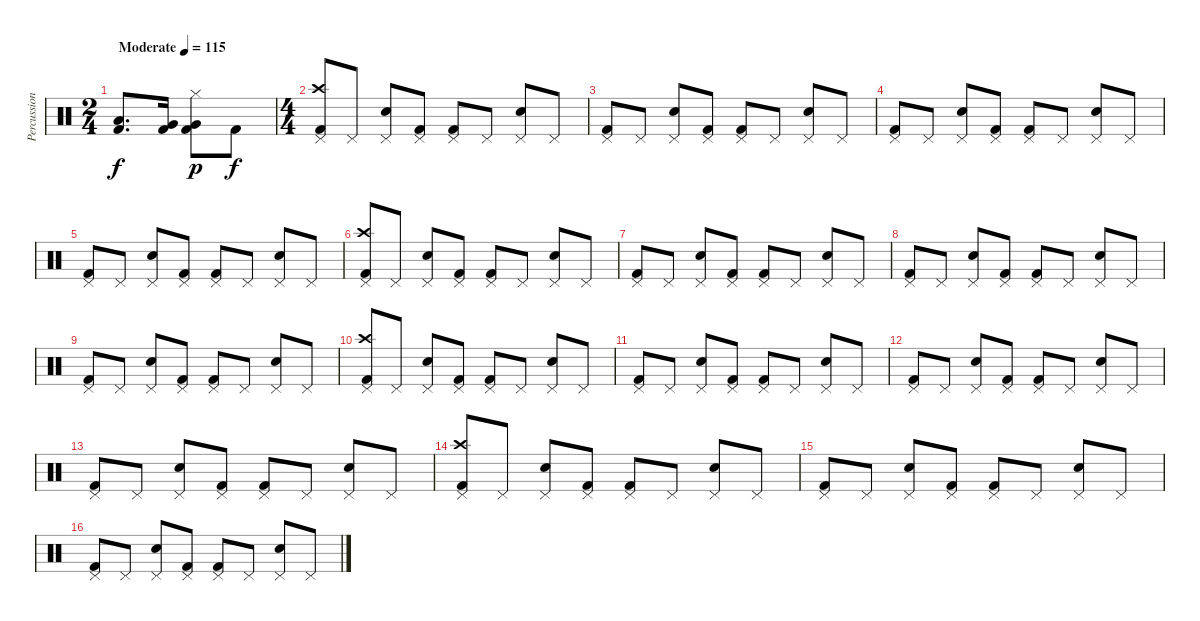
\track ("Percussion" "Percussion") {instrument percussion}
\staff {score}
\articulation defaults
\ts (2 4)
\tempo (115 "Moderate")
\clef neutral
\ks c
("Low Tom (hit)" "Kick (hit) 2").8{d dy f} ("Very Low Tom (hit)" "Kick (hit) 2").16 ("Hi-Hat (closed)" "Very Low Tom (hit)" "Kick (hit) 2").8{dy p} "Kick (hit) 2".8{dy f} |
\ts (4 4)
("Crash high (hit)" "Pedal Hi-Hat (hit)" "Kick (hit) 2").8 "Pedal Hi-Hat (hit)".8 ("Pedal Hi-Hat (hit)" "Snare (hit) 2").8 ("Pedal Hi-Hat (hit)" "Kick (hit) 2").8 ("Pedal Hi-Hat (hit)" "Kick (hit) 2").8 "Pedal Hi-Hat (hit)".8 ("Pedal Hi-Hat (hit)" "Snare (hit) 2").8 "Pedal Hi-Hat (hit)".8 |
("Pedal Hi-Hat (hit)" "Kick (hit) 2").8 "Pedal Hi-Hat (hit)".8 ("Pedal Hi-Hat (hit)" "Snare (hit) 2").8 ("Pedal Hi-Hat (hit)" "Kick (hit) 2").8 ("Pedal Hi-Hat (hit)" "Kick (hit) 2").8 "Pedal Hi-Hat (hit)".8 ("Pedal Hi-Hat (hit)" "Snare (hit) 2").8 "Pedal Hi-Hat (hit)".8 |
("Pedal Hi-Hat (hit)" "Kick (hit) 2").8 "Pedal Hi-Hat (hit)".8 ("Pedal Hi-Hat (hit)" "Snare (hit) 2").8 ("Pedal Hi-Hat (hit)" "Kick (hit) 2").8 ("Pedal Hi-Hat (hit)" "Kick (hit) 2").8 "Pedal Hi-Hat (hit)".8 ("Pedal Hi-Hat (hit)" "Snare (hit) 2").8 "Pedal Hi-Hat (hit)".8 |
("Pedal Hi-Hat (hit)" "Kick (hit) 2").8 "Pedal Hi-Hat (hit)".8 ("Pedal Hi-Hat (hit)" "Snare (hit) 2").8 ("Pedal Hi-Hat (hit)" "Kick (hit) 2").8 ("Pedal Hi-Hat (hit)" "Kick (hit) 2").8 "Pedal Hi-Hat (hit)".8 ("Pedal Hi-Hat (hit)" "Snare (hit) 2").8 "Pedal Hi-Hat (hit)".8 |
("Crash high (hit)" "Pedal Hi-Hat (hit)" "Kick (hit) 2").8 "Pedal Hi-Hat (hit)".8 ("Pedal Hi-Hat (hit)" "Snare (hit) 2").8 ("Pedal Hi-Hat (hit)" "Kick (hit) 2").8 ("Pedal Hi-Hat (hit)" "Kick (hit) 2").8 "Pedal Hi-Hat (hit)".8 ("Pedal Hi-Hat (hit)" "Snare (hit) 2").8 "Pedal Hi-Hat (hit)".8 |
("Pedal Hi-Hat (hit)" "Kick (hit) 2").8 "Pedal Hi-Hat (hit)".8 ("Pedal Hi-Hat (hit)" "Snare (hit) 2").8 ("Pedal Hi-Hat (hit)" "Kick (hit) 2").8 ("Pedal Hi-Hat (hit)" "Kick (hit) 2").8 "Pedal Hi-Hat (hit)".8 ("Pedal Hi-Hat (hit)" "Snare (hit) 2").8 "Pedal Hi-Hat (hit)".8 |
("Pedal Hi-Hat (hit)" "Kick (hit) 2").8 "Pedal Hi-Hat (hit)".8 ("Pedal Hi-Hat (hit)" "Snare (hit) 2").8 ("Pedal Hi-Hat (hit)" "Kick (hit) 2").8 ("Pedal Hi-Hat (hit)" "Kick (hit) 2").8 "Pedal Hi-Hat (hit)".8 ("Pedal Hi-Hat (hit)" "Snare (hit) 2").8 "Pedal Hi-Hat (hit)".8 |
("Pedal Hi-Hat (hit)" "Kick (hit) 2").8 "Pedal Hi-Hat (hit)".8 ("Pedal Hi-Hat (hit)" "Snare (hit) 2").8 ("Pedal Hi-Hat (hit)" "Kick (hit) 2").8 ("Pedal Hi-Hat (hit)" "Kick (hit) 2").8 "Pedal Hi-Hat (hit)".8 ("Pedal Hi-Hat (hit)" "Snare (hit) 2").8 "Pedal Hi-Hat (hit)".8 |
("Crash high (hit)" "Pedal Hi-Hat (hit)" "Kick (hit) 2").8 "Pedal Hi-Hat (hit)".8 ("Pedal Hi-Hat (hit)" "Snare (hit) 2").8 ("Pedal Hi-Hat (hit)" "Kick (hit) 2").8 ("Pedal Hi-Hat (hit)" "Kick (hit) 2").8 "Pedal Hi-Hat (hit)".8 ("Pedal Hi-Hat (hit)" "Snare (hit) 2").8 "Pedal Hi-Hat (hit)".8 |
("Pedal Hi-Hat (hit)" "Kick (hit) 2").8 "Pedal Hi-Hat (hit)".8 ("Pedal Hi-Hat (hit)" "Snare (hit) 2").8 ("Pedal Hi-Hat (hit)" "Kick (hit) 2").8 ("Pedal Hi-Hat (hit)" "Kick (hit) 2").8 "Pedal Hi-Hat (hit)".8 ("Pedal Hi-Hat (hit)" "Snare (hit) 2").8 "Pedal Hi-Hat (hit)".8 |
("Pedal Hi-Hat (hit)" "Kick (hit) 2").8 "Pedal Hi-Hat (hit)".8 ("Pedal Hi-Hat (hit)" "Snare (hit) 2").8 ("Pedal Hi-Hat (hit)" "Kick (hit) 2").8 ("Pedal Hi-Hat (hit)" "Kick (hit) 2").8 "Pedal Hi-Hat (hit)".8 ("Pedal Hi-Hat (hit)" "Snare (hit) 2").8 "Pedal Hi-Hat (hit)".8 |
("Pedal Hi-Hat (hit)" "Kick (hit) 2").8 "Pedal Hi-Hat (hit)".8 ("Pedal Hi-Hat (hit)" "Snare (hit) 2").8 ("Pedal Hi-Hat (hit)" "Kick (hit) 2").8 ("Pedal Hi-Hat (hit)" "Kick (hit) 2").8 "Pedal Hi-Hat (hit)".8 ("Pedal Hi-Hat (hit)" "Snare (hit) 2").8 "Pedal Hi-Hat (hit)".8 |
("Crash high (hit)" "Pedal Hi-Hat (hit)" "Kick (hit) 2").8 "Pedal Hi-Hat (hit)".8 ("Pedal Hi-Hat (hit)" "Snare (hit) 2").8 ("Pedal Hi-Hat (hit)" "Kick (hit) 2").8 ("Pedal Hi-Hat (hit)" "Kick (hit) 2").8 "Pedal Hi-Hat (hit)".8 ("Pedal Hi-Hat (hit)" "Snare (hit) 2").8 "Pedal Hi-Hat (hit)".8 |
("Pedal Hi-Hat (hit)" "Kick (hit) 2").8 "Pedal Hi-Hat (hit)".8 ("Pedal Hi-Hat (hit)" "Snare (hit) 2").8 ("Pedal Hi-Hat (hit)" "Kick (hit) 2").8 ("Pedal Hi-Hat (hit)" "Kick (hit) 2").8 "Pedal Hi-Hat (hit)".8 ("Pedal Hi-Hat (hit)" "Snare (hit) 2").8 "Pedal Hi-Hat (hit)".8 |
("Pedal Hi-Hat (hit)" "Kick (hit) 2").8 "Pedal Hi-Hat (hit)".8 ("Pedal Hi-Hat (hit)" "Snare (hit) 2").8 ("Pedal Hi-Hat (hit)" "Kick (hit) 2").8 ("Pedal Hi-Hat (hit)" "Kick (hit) 2").8 "Pedal Hi-Hat (hit)".8 ("Pedal Hi-Hat (hit)" "Snare (hit) 2").8 "Pedal Hi-Hat (hit)".8
